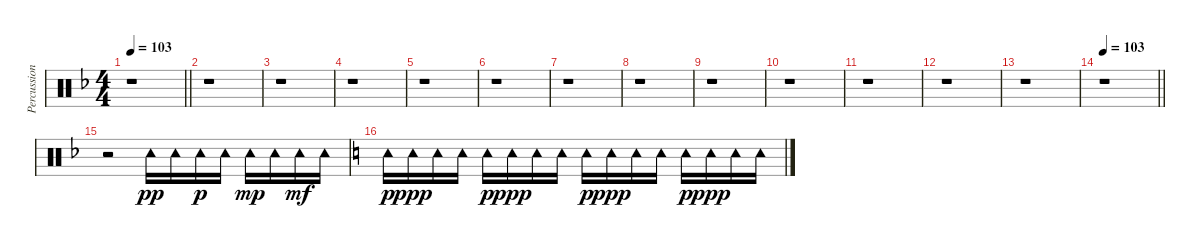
\track ("Percussions 2" "Percussion") {instrument percussion}
\staff {score}
\articulation defaults
\ts (4 4)
\tempo 103
\clef neutral
\barLineRight lightlight
\ks dminor
r.1{dy f} |
r.1 |
r.1 |
r.1 |
r.1 |
r.1 |
r.1 |
r.1 |
r.1 |
r.1 |
r.1 |
r.1 |
r.1 |
\tempo 103
\barLineRight lightlight
r.1 |
r.2 "Tambourine (hit)".16{dy pp} "Tambourine (hit)".16 "Tambourine (hit)".16{dy p} "Tambourine (hit)".16 "Tambourine (hit)".16{dy mp} "Tambourine (hit)".16 "Tambourine (hit)".16{dy mf} "Tambourine (hit)".16 |
\ks c "Tambourine (hit)".16{dy p} "Tambourine (hit)".16{dy ppp} "Tambourine (hit)".16 "Tambourine (hit)".16 "Tambourine (hit)".16{dy p} "Tambourine (hit)".16{dy ppp} "Tambourine (hit)".16 "Tambourine (hit)".16 "Tambourine (hit)".16{dy p} "Tambourine (hit)".16{dy ppp} "Tambourine (hit)".16 "Tambourine (hit)".16 "Tambourine (hit)".16{dy p} "Tambourine (hit)".16{dy ppp} "Tambourine (hit)".16 "Tambourine (hit)".16
